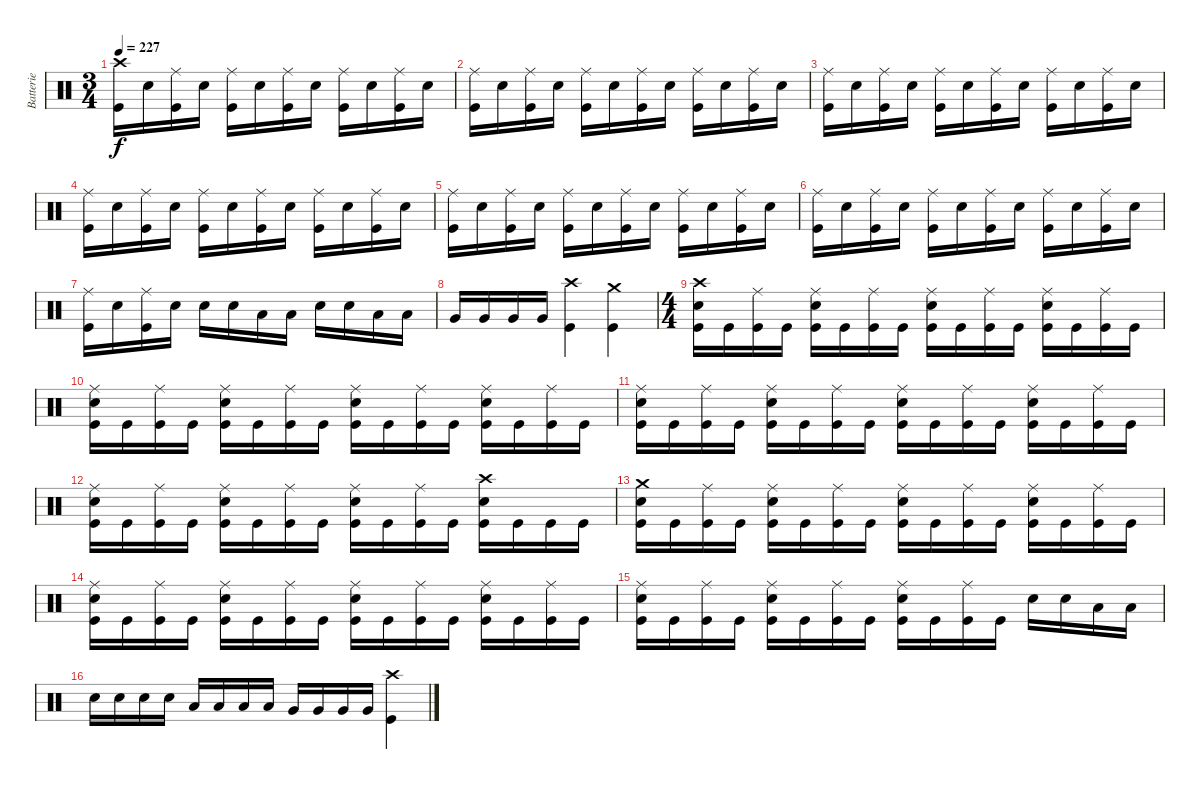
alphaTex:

\track ("Batterie" "Batterie") {instrument percussion}
\staff {score}
\articulation defaults
\ts (3 4)
\tempo 227
\clef neutral
\ks c
("Crash high (hit)" "Kick (hit)").16{dy f} "Electric Snare (hit)".16 ("Ride (middle)" "Kick (hit)").16 "Electric Snare (hit)".16 ("Ride (middle)" "Kick (hit)").16 "Electric Snare (hit)".16 ("Ride (middle)" "Kick (hit)").16 "Electric Snare (hit)".16 ("Ride (middle)" "Kick (hit)").16 "Electric Snare (hit)".16 ("Ride (middle)" "Kick (hit)").16 "Electric Snare (hit)".16 |
("Ride (middle)" "Kick (hit)").16 "Electric Snare (hit)".16 ("Ride (middle)" "Kick (hit)").16 "Electric Snare (hit)".16 ("Ride (middle)" "Kick (hit)").16 "Electric Snare (hit)".16 ("Ride (middle)" "Kick (hit)").16 "Electric Snare (hit)".16 ("Ride (middle)" "Kick (hit)").16 "Electric Snare (hit)".16 ("Ride (middle)" "Kick (hit)").16 "Electric Snare (hit)".16 |
("Ride (middle)" "Kick (hit)").16 "Electric Snare (hit)".16 ("Ride (middle)" "Kick (hit)").16 "Electric Snare (hit)".16 ("Ride (middle)" "Kick (hit)").16 "Electric Snare (hit)".16 ("Ride (middle)" "Kick (hit)").16 "Electric Snare (hit)".16 ("Ride (middle)" "Kick (hit)").16 "Electric Snare (hit)".16 ("Ride (middle)" "Kick (hit)").16 "Electric Snare (hit)".16 |
("Ride (middle)" "Kick (hit)").16 "Electric Snare (hit)".16 ("Ride (middle)" "Kick (hit)").16 "Electric Snare (hit)".16 ("Ride (middle)" "Kick (hit)").16 "Electric Snare (hit)".16 ("Ride (middle)" "Kick (hit)").16 "Electric Snare (hit)".16 ("Ride (middle)" "Kick (hit)").16 "Electric Snare (hit)".16 ("Ride (middle)" "Kick (hit)").16 "Electric Snare (hit)".16 |
("Ride (middle)" "Kick (hit)").16 "Electric Snare (hit)".16 ("Ride (middle)" "Kick (hit)").16 "Electric Snare (hit)".16 ("Ride (middle)" "Kick (hit)").16 "Electric Snare (hit)".16 ("Ride (middle)" "Kick (hit)").16 "Electric Snare (hit)".16 ("Ride (middle)" "Kick (hit)").16 "Electric Snare (hit)".16 ("Ride (middle)" "Kick (hit)").16 "Electric Snare (hit)".16 |
("Ride (middle)" "Kick (hit)").16 "Electric Snare (hit)".16 ("Ride (middle)" "Kick (hit)").16 "Electric Snare (hit)".16 ("Ride (middle)" "Kick (hit)").16 "Electric Snare (hit)".16 ("Ride (middle)" "Kick (hit)").16 "Electric Snare (hit)".16 ("Ride (middle)" "Kick (hit)").16 "Electric Snare (hit)".16 ("Ride (middle)" "Kick (hit)").16 "Electric Snare (hit)".16 |
("Ride (middle)" "Kick (hit)").16 "Electric Snare (hit)".16 ("Ride (middle)" "Kick (hit)").16 "Electric Snare (hit)".16 "Electric Snare (hit)".16 "Electric Snare (hit)".16 "Low Tom (hit)".16 "Low Tom (hit)".16 "Electric Snare (hit)".16 "Electric Snare (hit)".16 "Low Tom (hit)".16 "Low Tom (hit)".16 |
"Very Low Tom (hit)".16 "Very Low Tom (hit)".16 "Very Low Tom (hit)".16 "Very Low Tom (hit)".16 ("Crash high (hit)" "Kick (hit)").4 ("Crash medium (hit)" "Kick (hit)").4 |
\ts (4 4)
("Crash high (hit)" "Electric Snare (hit)" "Kick (hit)").16 "Kick (hit)".16 ("Ride (middle)" "Kick (hit)").16 "Kick (hit)".16 ("Ride (middle)" "Electric Snare (hit)" "Kick (hit)").16 "Kick (hit)".16 ("Ride (middle)" "Kick (hit)").16 "Kick (hit)".16 ("Ride (middle)" "Electric Snare (hit)" "Kick (hit)").16 "Kick (hit)".16 ("Ride (middle)" "Kick (hit)").16 "Kick (hit)".16 ("Ride (middle)" "Electric Snare (hit)" "Kick (hit)").16 "Kick (hit)".16 ("Ride (middle)" "Kick (hit)").16 "Kick (hit)".16 |
("Ride (middle)" "Electric Snare (hit)" "Kick (hit)").16 "Kick (hit)".16 ("Ride (middle)" "Kick (hit)").16 "Kick (hit)".16 ("Ride (middle)" "Electric Snare (hit)" "Kick (hit)").16 "Kick (hit)".16 ("Ride (middle)" "Kick (hit)").16 "Kick (hit)".16 ("Ride (middle)" "Electric Snare (hit)" "Kick (hit)").16 "Kick (hit)".16 ("Ride (middle)" "Kick (hit)").16 "Kick (hit)".16 ("Ride (middle)" "Electric Snare (hit)" "Kick (hit)").16 "Kick (hit)".16 ("Ride (middle)" "Kick (hit)").16 "Kick (hit)".16 |
("Ride (middle)" "Electric Snare (hit)" "Kick (hit)").16 "Kick (hit)".16 ("Ride (middle)" "Kick (hit)").16 "Kick (hit)".16 ("Ride (middle)" "Electric Snare (hit)" "Kick (hit)").16 "Kick (hit)".16 ("Ride (middle)" "Kick (hit)").16 "Kick (hit)".16 ("Ride (middle)" "Electric Snare (hit)" "Kick (hit)").16 "Kick (hit)".16 ("Ride (middle)" "Kick (hit)").16 "Kick (hit)".16 ("Ride (middle)" "Electric Snare (hit)" "Kick (hit)").16 "Kick (hit)".16 ("Ride (middle)" "Kick (hit)").16 "Kick (hit)".16 |
("Ride (middle)" "Electric Snare (hit)" "Kick (hit)").16 "Kick (hit)".16 ("Ride (middle)" "Kick (hit)").16 "Kick (hit)".16 ("Ride (middle)" "Electric Snare (hit)" "Kick (hit)").16 "Kick (hit)".16 ("Ride (middle)" "Kick (hit)").16 "Kick (hit)".16 ("Ride (middle)" "Electric Snare (hit)" "Kick (hit)").16 "Kick (hit)".16 ("Ride (middle)" "Kick (hit)").16 "Kick (hit)".16 ("Crash high (hit)" "Electric Snare (hit)" "Kick (hit)").16 "Kick (hit)".16 "Kick (hit)".16 "Kick (hit)".16 |
("Crash medium (hit)" "Electric Snare (hit)" "Kick (hit)").16 "Kick (hit)".16 ("Ride (middle)" "Kick (hit)").16 "Kick (hit)".16 ("Ride (middle)" "Electric Snare (hit)" "Kick (hit)").16 "Kick (hit)".16 ("Ride (middle)" "Kick (hit)").16 "Kick (hit)".16 ("Ride (middle)" "Electric Snare (hit)" "Kick (hit)").16 "Kick (hit)".16 ("Ride (middle)" "Kick (hit)").16 "Kick (hit)".16 ("Ride (middle)" "Electric Snare (hit)" "Kick (hit)").16 "Kick (hit)".16 ("Ride (middle)" "Kick (hit)").16 "Kick (hit)".16 |
("Ride (middle)" "Electric Snare (hit)" "Kick (hit)").16 "Kick (hit)".16 ("Ride (middle)" "Kick (hit)").16 "Kick (hit)".16 ("Ride (middle)" "Electric Snare (hit)" "Kick (hit)").16 "Kick (hit)".16 ("Ride (middle)" "Kick (hit)").16 "Kick (hit)".16 ("Ride (middle)" "Electric Snare (hit)" "Kick (hit)").16 "Kick (hit)".16 ("Ride (middle)" "Kick (hit)").16 "Kick (hit)".16 ("Ride (middle)" "Electric Snare (hit)" "Kick (hit)").16 "Kick (hit)".16 ("Ride (middle)" "Kick (hit)").16 "Kick (hit)".16 |
("Ride (middle)" "Electric Snare (hit)" "Kick (hit)").16 "Kick (hit)".16 ("Ride (middle)" "Kick (hit)").16 "Kick (hit)".16 ("Ride (middle)" "Electric Snare (hit)" "Kick (hit)").16 "Kick (hit)".16 ("Ride (middle)" "Kick (hit)").16 "Kick (hit)".16 ("Ride (middle)" "Electric Snare (hit)" "Kick (hit)").16 "Kick (hit)".16 ("Ride (middle)" "Kick (hit)").16 "Kick (hit)".16 "Electric Snare (hit)".16 "Electric Snare (hit)".16 "Low Tom (hit)".16 "Low Tom (hit)".16 |
"Electric Snare (hit)".16 "Electric Snare (hit)".16 "Electric Snare (hit)".16 "Electric Snare (hit)".16 "Low Tom (hit)".16 "Low Tom (hit)".16 "Low Tom (hit)".16 "Low Tom (hit)".16 "Very Low Tom (hit)".16 "Very Low Tom (hit)".16 "Very Low Tom (hit)".16 "Very Low Tom (hit)".16 ("Crash high (hit)" "Kick (hit)").4
